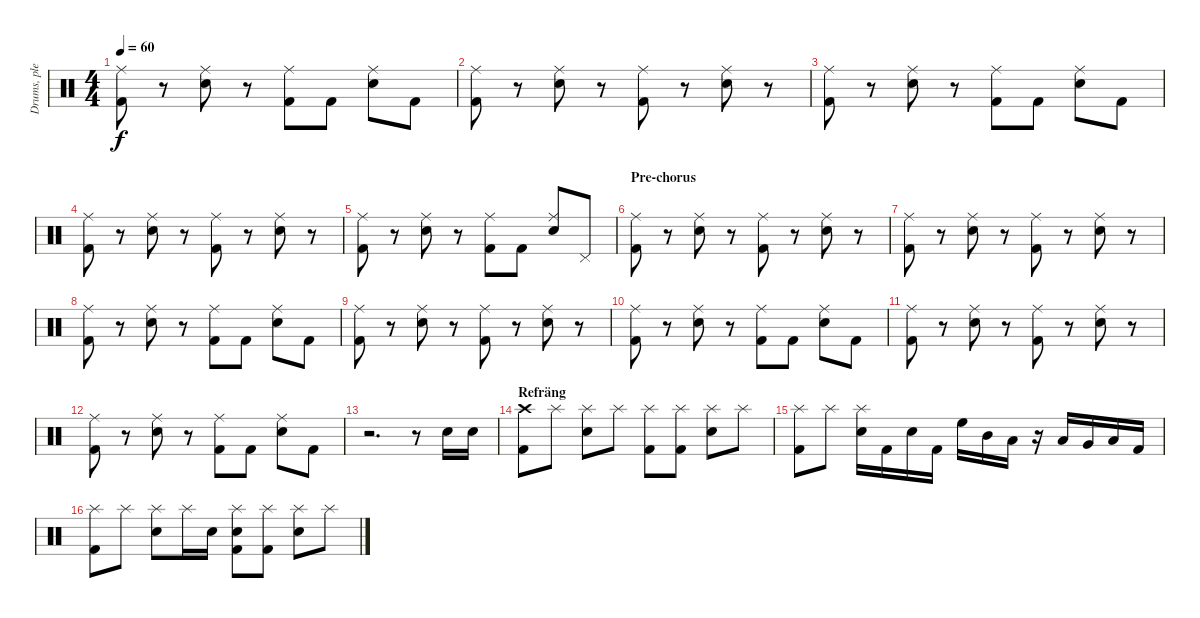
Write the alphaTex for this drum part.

\track ("Drums, please" "Drums, ple") {instrument percussion}
\staff {score}
\articulation defaults
\ts (4 4)
\tempo 60
\clef neutral
\ks c
("Kick (hit) 2" "Ride (middle)").8{dy f} r.8 ("Electric Snare (hit)" "Ride (middle)").8 r.8 ("Kick (hit) 2" "Ride (middle)").8 "Kick (hit) 2".8 ("Electric Snare (hit)" "Ride (middle)").8 "Kick (hit) 2".8 |
("Kick (hit) 2" "Ride (middle)").8 r.8 ("Electric Snare (hit)" "Ride (middle)").8 r.8 ("Kick (hit) 2" "Ride (middle)").8 r.8 ("Electric Snare (hit)" "Ride (middle)").8 r.8 |
("Kick (hit) 2" "Ride (middle)").8 r.8 ("Electric Snare (hit)" "Ride (middle)").8 r.8 ("Kick (hit) 2" "Ride (middle)").8 "Kick (hit) 2".8 ("Electric Snare (hit)" "Ride (middle)").8 "Kick (hit) 2".8 |
("Kick (hit) 2" "Ride (middle)").8 r.8 ("Electric Snare (hit)" "Ride (middle)").8 r.8 ("Kick (hit) 2" "Ride (middle)").8 r.8 ("Electric Snare (hit)" "Ride (middle)").8 r.8 |
("Kick (hit) 2" "Ride (middle)").8 r.8 ("Electric Snare (hit)" "Ride (middle)").8 r.8 ("Kick (hit) 2" "Ride (middle)").8 "Kick (hit) 2".8 ("Electric Snare (hit)" "Ride (middle)").8 "Pedal Hi-Hat (hit)".8 |
\section ("" "Pre-chorus")
("Kick (hit) 2" "Ride (middle)").8 r.8 ("Electric Snare (hit)" "Ride (middle)").8 r.8 ("Kick (hit) 2" "Ride (middle)").8 r.8 ("Electric Snare (hit)" "Ride (middle)").8 r.8 |
("Kick (hit) 2" "Ride (middle)").8 r.8 ("Electric Snare (hit)" "Ride (middle)").8 r.8 ("Kick (hit) 2" "Ride (middle)").8 r.8 ("Electric Snare (hit)" "Ride (middle)").8 r.8 |
("Kick (hit) 2" "Ride (middle)").8 r.8 ("Electric Snare (hit)" "Ride (middle)").8 r.8 ("Kick (hit) 2" "Ride (middle)").8 "Kick (hit) 2".8 ("Electric Snare (hit)" "Ride (middle)").8 "Kick (hit) 2".8 |
("Kick (hit) 2" "Ride (middle)").8 r.8 ("Electric Snare (hit)" "Ride (middle)").8 r.8 ("Kick (hit) 2" "Ride (middle)").8 r.8 ("Electric Snare (hit)" "Ride (middle)").8 r.8 |
("Kick (hit) 2" "Ride (middle)").8 r.8 ("Electric Snare (hit)" "Ride (middle)").8 r.8 ("Kick (hit) 2" "Ride (middle)").8 "Kick (hit) 2".8 ("Electric Snare (hit)" "Ride (middle)").8 "Kick (hit) 2".8 |
("Kick (hit) 2" "Ride (middle)").8 r.8 ("Electric Snare (hit)" "Ride (middle)").8 r.8 ("Kick (hit) 2" "Ride (middle)").8 r.8 ("Electric Snare (hit)" "Ride (middle)").8 r.8 |
("Kick (hit) 2" "Ride (middle)").8 r.8 ("Electric Snare (hit)" "Ride (middle)").8 r.8 ("Kick (hit) 2" "Ride (middle)").8 "Kick (hit) 2".8 ("Electric Snare (hit)" "Ride (middle)").8 "Kick (hit) 2".8 |
r.2{d} r.8 "Electric Snare (hit)".16 "Electric Snare (hit)".16 |
\section ("" "Refräng")
("Kick (hit) 2" "Crash high (hit)").8 "Splash (hit)".8 ("Electric Snare (hit)" "Splash (hit)").8 "Splash (hit)".8 ("Kick (hit) 2" "Splash (hit)").8 ("Kick (hit) 2" "Splash (hit)").8 ("Electric Snare (hit)" "Splash (hit)").8 "Splash (hit)".8 |
("Kick (hit) 2" "Splash (hit)").8 "Splash (hit)".8 ("Electric Snare (hit)" "Splash (hit)").16 "Kick (hit) 2".16 "Electric Snare (hit)".16 "Kick (hit) 2".16 "High Floor Tom (hit)".16 "Mid Tom (hit)".16 "Low Tom (hit)".16 r.16 "Low Tom (hit)".16 "Very Low Tom (hit)".16 "Low Floor Tom (hit)".16 "Kick (hit) 2".16 |
("Kick (hit) 2" "Splash (hit)").8 "Splash (hit)".8 ("Electric Snare (hit)" "Splash (hit)").8 "Splash (hit)".16 "Electric Snare (hit)".16 ("Kick (hit) 2" "Electric Snare (hit)" "Splash (hit)").8 ("Kick (hit) 2" "Splash (hit)").8 ("Electric Snare (hit)" "Splash (hit)").8 "Splash (hit)".8
